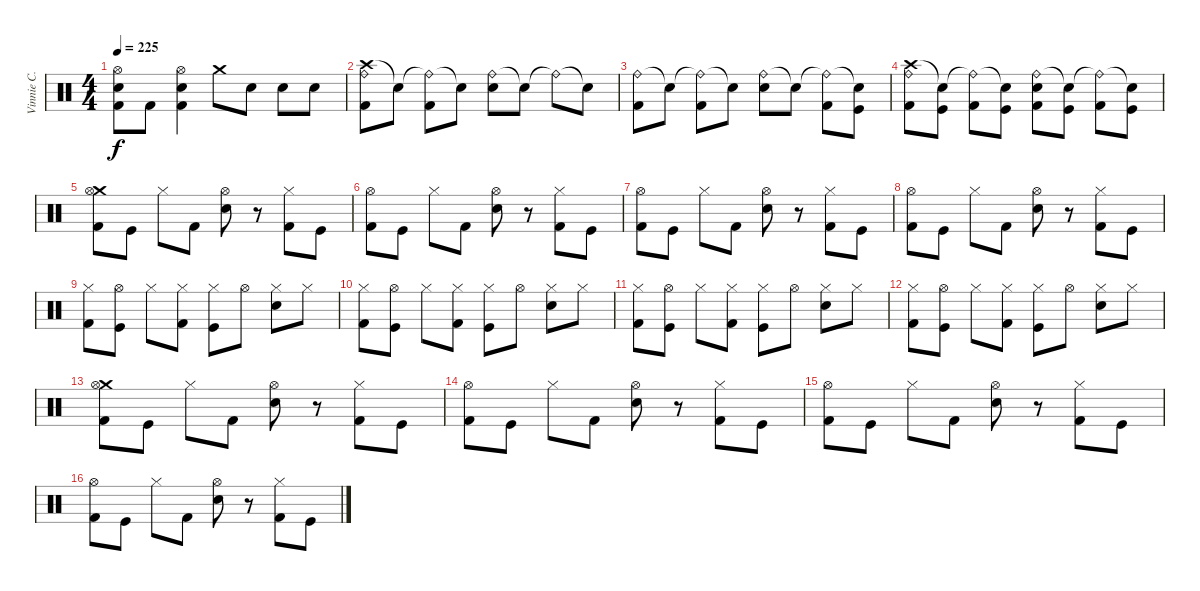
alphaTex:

\track ("Vinnie C." "Vinnie C.") {instrument percussion}
\staff {score}
\articulation defaults
\ts (4 4)
\tempo 225
\clef neutral
\ks c
("Hi-Hat (open)" "Electric Snare (hit)" "Kick (hit) 2").8{dy f} "Kick (hit) 2".8 ("Hi-Hat (open)" "Electric Snare (hit)" "Kick (hit) 2").4 "Crash medium (hit)".8 "Electric Snare (hit)".8 "Electric Snare (hit)".8 "Electric Snare (hit)".8 |
("Crash high (hit)" "Ride (bell)" "Kick (hit) 2").8 "Snare (hit)"{t}.8 ("Ride (bell)"{t} "Kick (hit) 2").8 "Snare (hit)"{t}.8 ("Ride (bell)" "Electric Snare (hit)").8 "Snare (hit)"{t}.8 "Ride (bell)"{t}.8 "Snare (hit)"{t}.8 |
("Ride (bell)" "Kick (hit) 2").8 "Snare (hit)"{t}.8 ("Ride (bell)"{t} "Kick (hit) 2").8 "Snare (hit)"{t}.8 ("Ride (bell)" "Electric Snare (hit)").8 "Snare (hit)"{t}.8 ("Ride (bell)"{t} "Kick (hit) 2").8 ("Snare (hit)"{t} "Kick (hit)").8 |
("Crash high (hit)" "Ride (bell)" "Kick (hit) 2").8 ("Snare (hit)"{t} "Kick (hit)").8 ("Ride (bell)"{t} "Kick (hit) 2").8 ("Snare (hit)"{t} "Kick (hit)").8 ("Ride (bell)" "Electric Snare (hit)" "Kick (hit) 2").8 ("Snare (hit)"{t} "Kick (hit)").8 ("Ride (bell)"{t} "Kick (hit) 2").8 ("Snare (hit)"{t} "Kick (hit)").8 |
("Crash medium (hit)" "Hi-Hat (open)" "Kick (hit) 2").8 "Kick (hit)".8 "Hi-Hat (closed)".8 "Kick (hit) 2".8 ("Hi-Hat (open)" "Electric Snare (hit)").8 r.8 ("Hi-Hat (closed)" "Kick (hit) 2").8 "Kick (hit)".8 |
("Hi-Hat (open)" "Kick (hit) 2").8 "Kick (hit)".8 "Hi-Hat (closed)".8 "Kick (hit) 2".8 ("Hi-Hat (open)" "Electric Snare (hit)").8 r.8 ("Hi-Hat (closed)" "Kick (hit) 2").8 "Kick (hit)".8 |
("Hi-Hat (open)" "Kick (hit) 2").8 "Kick (hit)".8 "Hi-Hat (closed)".8 "Kick (hit) 2".8 ("Hi-Hat (open)" "Electric Snare (hit)").8 r.8 ("Hi-Hat (closed)" "Kick (hit) 2").8 "Kick (hit)".8 |
("Hi-Hat (open)" "Kick (hit) 2").8 "Kick (hit)".8 "Hi-Hat (closed)".8 "Kick (hit) 2".8 ("Hi-Hat (open)" "Electric Snare (hit)").8 r.8 ("Hi-Hat (closed)" "Kick (hit) 2").8 "Kick (hit)".8 |
("Hi-Hat (closed)" "Kick (hit) 2").8 ("Hi-Hat (open)" "Kick (hit)").8 "Hi-Hat (closed)".8 ("Hi-Hat (closed)" "Kick (hit) 2").8 ("Hi-Hat (closed)" "Kick (hit)").8 "Hi-Hat (open)".8 ("Hi-Hat (closed)" "Electric Snare (hit)").8 "Hi-Hat (closed)".8 |
("Hi-Hat (closed)" "Kick (hit) 2").8 ("Hi-Hat (open)" "Kick (hit)").8 "Hi-Hat (closed)".8 ("Hi-Hat (closed)" "Kick (hit) 2").8 ("Hi-Hat (closed)" "Kick (hit)").8 "Hi-Hat (open)".8 ("Hi-Hat (closed)" "Electric Snare (hit)").8 "Hi-Hat (closed)".8 |
("Hi-Hat (closed)" "Kick (hit) 2").8 ("Hi-Hat (open)" "Kick (hit)").8 "Hi-Hat (closed)".8 ("Hi-Hat (closed)" "Kick (hit) 2").8 ("Hi-Hat (closed)" "Kick (hit)").8 "Hi-Hat (open)".8 ("Hi-Hat (closed)" "Electric Snare (hit)").8 "Hi-Hat (closed)".8 |
("Hi-Hat (closed)" "Kick (hit) 2").8 ("Hi-Hat (open)" "Kick (hit)").8 "Hi-Hat (closed)".8 ("Hi-Hat (closed)" "Kick (hit) 2").8 ("Hi-Hat (closed)" "Kick (hit)").8 "Hi-Hat (open)".8 ("Hi-Hat (closed)" "Electric Snare (hit)").8 "Hi-Hat (closed)".8 |
("Crash medium (hit)" "Hi-Hat (open)" "Kick (hit) 2").8 "Kick (hit)".8 "Hi-Hat (closed)".8 "Kick (hit) 2".8 ("Hi-Hat (open)" "Electric Snare (hit)").8 r.8 ("Hi-Hat (closed)" "Kick (hit) 2").8 "Kick (hit)".8 |
("Hi-Hat (open)" "Kick (hit) 2").8 "Kick (hit)".8 "Hi-Hat (closed)".8 "Kick (hit) 2".8 ("Hi-Hat (open)" "Electric Snare (hit)").8 r.8 ("Hi-Hat (closed)" "Kick (hit) 2").8 "Kick (hit)".8 |
("Hi-Hat (open)" "Kick (hit) 2").8 "Kick (hit)".8 "Hi-Hat (closed)".8 "Kick (hit) 2".8 ("Hi-Hat (open)" "Electric Snare (hit)").8 r.8 ("Hi-Hat (closed)" "Kick (hit) 2").8 "Kick (hit)".8 |
("Hi-Hat (open)" "Kick (hit) 2").8 "Kick (hit)".8 "Hi-Hat (closed)".8 "Kick (hit) 2".8 ("Hi-Hat (open)" "Electric Snare (hit)").8 r.8 ("Hi-Hat (closed)" "Kick (hit) 2").8 "Kick (hit)".8
